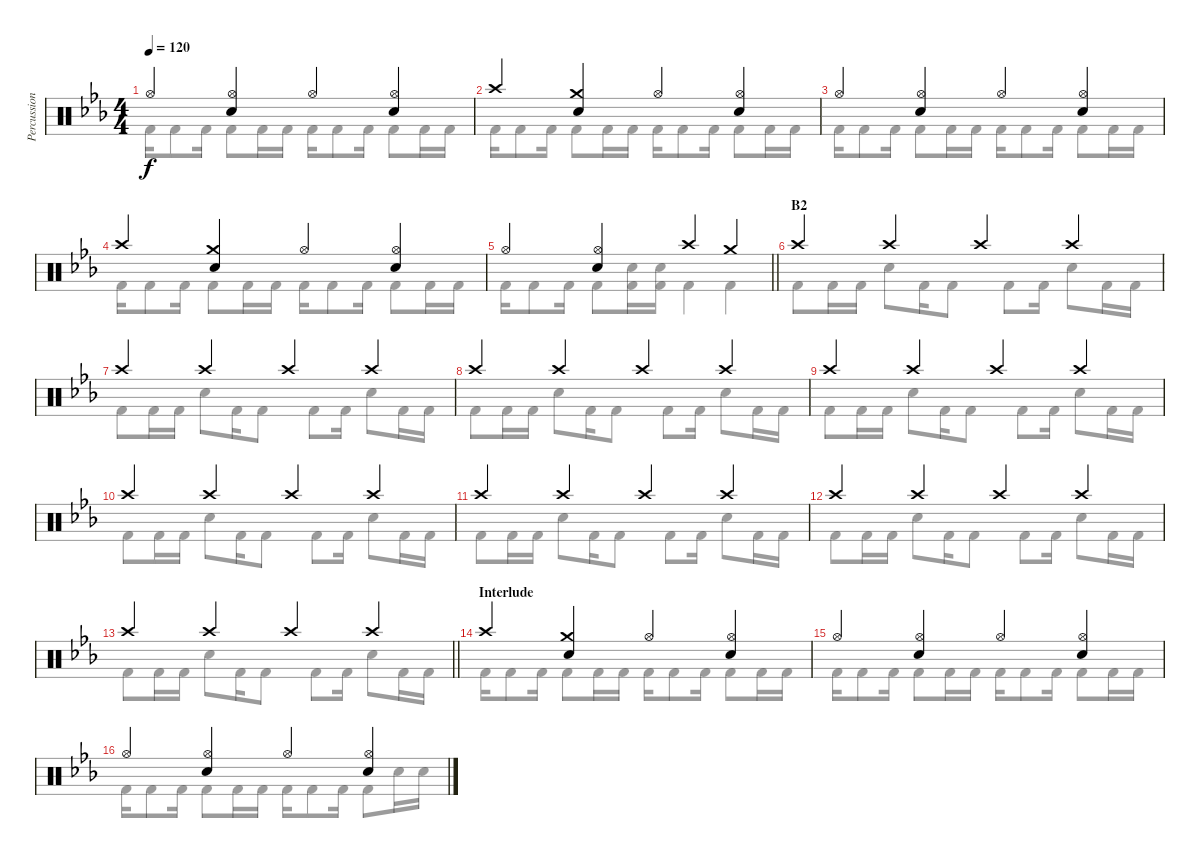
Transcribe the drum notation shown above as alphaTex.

\track ("Percussion" "Percussion") {instrument percussion}
\staff {score}
\articulation defaults
\voice
\ts (4 4)
\tempo 120
\clef neutral
\ks cminor "Hi-Hat (open)".4{dy f}
("Hi-Hat (open)" "Snare (hit) 2").4 "Hi-Hat (open)".4 ("Hi-Hat (open)" "Snare (hit) 2").4 |
"Crash high (hit)".4 ("Crash medium (hit)" "Snare (hit) 2").4 "Hi-Hat (open)".4 ("Hi-Hat (open)" "Snare (hit) 2").4 |
"Hi-Hat (open)".4 ("Hi-Hat (open)" "Snare (hit) 2").4 "Hi-Hat (open)".4 ("Hi-Hat (open)" "Snare (hit) 2").4 |
"Crash high (hit)".4 ("Crash medium (hit)" "Snare (hit) 2").4 "Hi-Hat (open)".4 ("Hi-Hat (open)" "Snare (hit) 2").4 |
\barLineRight lightlight "Hi-Hat (open)".4
("Hi-Hat (open)" "Snare (hit) 2").4 "Crash high (hit)".4 "Crash medium (hit)".4 |
\section ("" "B2")
"Crash high (hit)".4 "Crash high (hit)".4 "Crash high (hit)".4 "Crash high (hit)".4 |
"Crash high (hit)".4 "Crash high (hit)".4 "Crash high (hit)".4 "Crash high (hit)".4 |
"Crash high (hit)".4 "Crash high (hit)".4 "Crash high (hit)".4 "Crash high (hit)".4 |
"Crash high (hit)".4 "Crash high (hit)".4 "Crash high (hit)".4 "Crash high (hit)".4 |
"Crash high (hit)".4 "Crash high (hit)".4 "Crash high (hit)".4 "Crash high (hit)".4 |
"Crash high (hit)".4 "Crash high (hit)".4 "Crash high (hit)".4 "Crash high (hit)".4 |
"Crash high (hit)".4 "Crash high (hit)".4 "Crash high (hit)".4 "Crash high (hit)".4 |
\barLineRight lightlight "Crash high (hit)".4 "Crash high (hit)".4 "Crash high (hit)".4 "Crash high (hit)".4
|
\section ("" "Interlude")
"Crash high (hit)".4 ("Crash medium (hit)" "Snare (hit) 2").4 "Hi-Hat (open)".4 ("Hi-Hat (open)" "Snare (hit) 2").4 |
"Hi-Hat (open)".4 ("Hi-Hat (open)" "Snare (hit) 2").4 "Hi-Hat (open)".4 ("Hi-Hat (open)" "Snare (hit) 2").4 |
"Hi-Hat (open)".4 ("Hi-Hat (open)" "Snare (hit) 2").4 "Hi-Hat (open)".4 ("Hi-Hat (open)" "Snare (hit) 2").4
\voice
\clef neutral
\ottava regular
\simile none
\ks cminor "Kick (hit) 2".16{dy f} "Kick (hit) 2".8 "Kick (hit) 2".16 "Kick (hit) 2".8 "Kick (hit) 2".16 "Kick (hit) 2".16 "Kick (hit) 2".16 "Kick (hit) 2".8 "Kick (hit) 2".16 "Kick (hit) 2".8 "Kick (hit) 2".16 "Kick (hit) 2".16
|
"Kick (hit) 2".16 "Kick (hit) 2".8 "Kick (hit) 2".16 "Kick (hit) 2".8 "Kick (hit) 2".16 "Kick (hit) 2".16 "Kick (hit) 2".16 "Kick (hit) 2".8 "Kick (hit) 2".16 "Kick (hit) 2".8 "Kick (hit) 2".16 "Kick (hit) 2".16 |
"Kick (hit) 2".16 "Kick (hit) 2".8 "Kick (hit) 2".16 "Kick (hit) 2".8 "Kick (hit) 2".16 "Kick (hit) 2".16 "Kick (hit) 2".16 "Kick (hit) 2".8 "Kick (hit) 2".16 "Kick (hit) 2".8 "Kick (hit) 2".16 "Kick (hit) 2".16 |
"Kick (hit) 2".16 "Kick (hit) 2".8 "Kick (hit) 2".16 "Kick (hit) 2".8 "Kick (hit) 2".16 "Kick (hit) 2".16 "Kick (hit) 2".16 "Kick (hit) 2".8 "Kick (hit) 2".16 "Kick (hit) 2".8 "Kick (hit) 2".16 "Kick (hit) 2".16 |
\barLineRight lightlight "Kick (hit) 2".16 "Kick (hit) 2".8 "Kick (hit) 2".16 "Kick (hit) 2".8
("Snare (hit) 2" "Kick (hit) 2").16 ("Snare (hit) 2" "Kick (hit) 2").16 "Kick (hit) 2".4 "Kick (hit) 2".4 |
"Kick (hit) 2".8 "Kick (hit) 2".16 "Kick (hit) 2".16 "Snare (hit) 2".8 "Kick (hit) 2".16 "Kick (hit) 2".8 "Kick (hit) 2".8 "Kick (hit) 2".16 "Snare (hit) 2".8 "Kick (hit) 2".16 "Kick (hit) 2".16 |
"Kick (hit) 2".8 "Kick (hit) 2".16 "Kick (hit) 2".16 "Snare (hit) 2".8 "Kick (hit) 2".16 "Kick (hit) 2".8 "Kick (hit) 2".8 "Kick (hit) 2".16 "Snare (hit) 2".8 "Kick (hit) 2".16 "Kick (hit) 2".16 |
"Kick (hit) 2".8 "Kick (hit) 2".16 "Kick (hit) 2".16 "Snare (hit) 2".8 "Kick (hit) 2".16 "Kick (hit) 2".8 "Kick (hit) 2".8 "Kick (hit) 2".16 "Snare (hit) 2".8 "Kick (hit) 2".16 "Kick (hit) 2".16 |
"Kick (hit) 2".8 "Kick (hit) 2".16 "Kick (hit) 2".16 "Snare (hit) 2".8 "Kick (hit) 2".16 "Kick (hit) 2".8 "Kick (hit) 2".8 "Kick (hit) 2".16 "Snare (hit) 2".8 "Kick (hit) 2".16 "Kick (hit) 2".16 |
"Kick (hit) 2".8 "Kick (hit) 2".16 "Kick (hit) 2".16 "Snare (hit) 2".8 "Kick (hit) 2".16 "Kick (hit) 2".8 "Kick (hit) 2".8 "Kick (hit) 2".16 "Snare (hit) 2".8 "Kick (hit) 2".16 "Kick (hit) 2".16 |
"Kick (hit) 2".8 "Kick (hit) 2".16 "Kick (hit) 2".16 "Snare (hit) 2".8 "Kick (hit) 2".16 "Kick (hit) 2".8 "Kick (hit) 2".8 "Kick (hit) 2".16 "Snare (hit) 2".8 "Kick (hit) 2".16 "Kick (hit) 2".16 |
"Kick (hit) 2".8 "Kick (hit) 2".16 "Kick (hit) 2".16 "Snare (hit) 2".8 "Kick (hit) 2".16 "Kick (hit) 2".8 "Kick (hit) 2".8 "Kick (hit) 2".16 "Snare (hit) 2".8 "Kick (hit) 2".16 "Kick (hit) 2".16 |
\barLineRight lightlight "Kick (hit) 2".8 "Kick (hit) 2".16 "Kick (hit) 2".16 "Snare (hit) 2".8 "Kick (hit) 2".16 "Kick (hit) 2".8 "Kick (hit) 2".8 "Kick (hit) 2".16 "Snare (hit) 2".8 "Kick (hit) 2".16 "Kick (hit) 2".16
|
"Kick (hit) 2".16 "Kick (hit) 2".8 "Kick (hit) 2".16 "Kick (hit) 2".8 "Kick (hit) 2".16 "Kick (hit) 2".16 "Kick (hit) 2".16 "Kick (hit) 2".8 "Kick (hit) 2".16 "Kick (hit) 2".8 "Kick (hit) 2".16 "Kick (hit) 2".16 |
"Kick (hit) 2".16 "Kick (hit) 2".8 "Kick (hit) 2".16 "Kick (hit) 2".8 "Kick (hit) 2".16 "Kick (hit) 2".16 "Kick (hit) 2".16 "Kick (hit) 2".8 "Kick (hit) 2".16 "Kick (hit) 2".8 "Kick (hit) 2".16 "Kick (hit) 2".16 |
"Kick (hit) 2".16 "Kick (hit) 2".8 "Kick (hit) 2".16 "Kick (hit) 2".8 "Kick (hit) 2".16 "Kick (hit) 2".16 "Kick (hit) 2".16 "Kick (hit) 2".8 "Kick (hit) 2".16 "Kick (hit) 2".8 "Snare (hit) 2".16 "Snare (hit) 2".16
